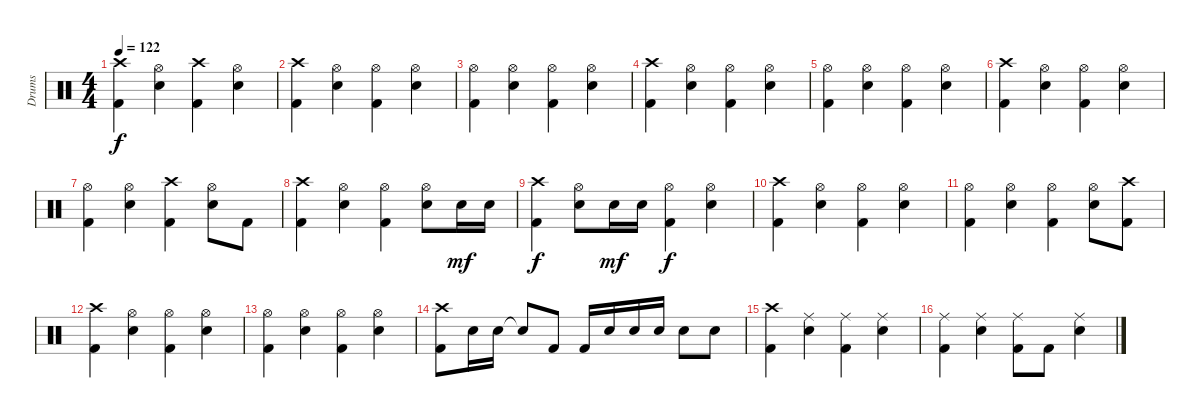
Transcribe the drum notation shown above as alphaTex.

\track ("Drums" "Drums") {instrument percussion}
\staff {score}
\articulation defaults
\ts (4 4)
\tempo 122
\clef neutral
\ks c
("Kick (hit) 2" "Crash high (hit)").4{dy f} ("Electric Snare (hit)" "Hi-Hat (open)").4 ("Kick (hit) 2" "Crash high (hit)").4 ("Electric Snare (hit)" "Hi-Hat (open)").4 |
("Crash high (hit)" "Kick (hit) 2").4 ("Electric Snare (hit)" "Hi-Hat (open)").4 ("Kick (hit) 2" "Hi-Hat (open)").4 ("Electric Snare (hit)" "Hi-Hat (open)").4 |
("Kick (hit) 2" "Hi-Hat (open)").4 ("Electric Snare (hit)" "Hi-Hat (open)").4 ("Kick (hit) 2" "Hi-Hat (open)").4 ("Electric Snare (hit)" "Hi-Hat (open)").4 |
("Crash high (hit)" "Kick (hit) 2").4 ("Electric Snare (hit)" "Hi-Hat (open)").4 ("Kick (hit) 2" "Hi-Hat (open)").4 ("Electric Snare (hit)" "Hi-Hat (open)").4 |
("Kick (hit) 2" "Hi-Hat (open)").4 ("Electric Snare (hit)" "Hi-Hat (open)").4 ("Kick (hit) 2" "Hi-Hat (open)").4 ("Electric Snare (hit)" "Hi-Hat (open)").4 |
("Kick (hit) 2" "Crash high (hit)").4 ("Electric Snare (hit)" "Hi-Hat (open)").4 ("Kick (hit) 2" "Hi-Hat (open)").4 ("Electric Snare (hit)" "Hi-Hat (open)").4 |
("Kick (hit) 2" "Hi-Hat (open)").4 ("Electric Snare (hit)" "Hi-Hat (open)").4 ("Kick (hit) 2" "Crash high (hit)").4 ("Electric Snare (hit)" "Hi-Hat (open)").8 "Kick (hit) 2".8 |
("Kick (hit) 2" "Crash high (hit)").4 ("Electric Snare (hit)" "Hi-Hat (open)").4 ("Kick (hit) 2" "Hi-Hat (open)").4 ("Electric Snare (hit)" "Hi-Hat (open)").8 "Electric Snare (hit)".16{dy mf} "Electric Snare (hit)".16 |
("Crash high (hit)" "Kick (hit) 2").4{dy f} ("Hi-Hat (open)" "Electric Snare (hit)").8 "Electric Snare (hit)".16{dy mf} "Electric Snare (hit)".16 ("Hi-Hat (open)" "Kick (hit) 2").4{dy f} ("Hi-Hat (open)" "Electric Snare (hit)").4 |
("Kick (hit) 2" "Crash high (hit)").4 ("Electric Snare (hit)" "Hi-Hat (open)").4 ("Kick (hit) 2" "Hi-Hat (open)").4 ("Electric Snare (hit)" "Hi-Hat (open)").4 |
("Kick (hit) 2" "Hi-Hat (open)").4 ("Electric Snare (hit)" "Hi-Hat (open)").4 ("Kick (hit) 2" "Hi-Hat (open)").4 ("Electric Snare (hit)" "Hi-Hat (open)").8 ("Crash high (hit)" "Kick (hit) 2").8 |
("Crash high (hit)" "Kick (hit) 2").4 ("Hi-Hat (open)" "Electric Snare (hit)").4 ("Kick (hit) 2" "Hi-Hat (open)").4 ("Electric Snare (hit)" "Hi-Hat (open)").4 |
("Kick (hit) 2" "Hi-Hat (open)").4 ("Electric Snare (hit)" "Hi-Hat (open)").4 ("Kick (hit) 2" "Hi-Hat (open)").4 ("Electric Snare (hit)" "Hi-Hat (open)").4 |
("Crash high (hit)" "Kick (hit) 2").8 "Electric Snare (hit)".16 "Electric Snare (hit)".16 "Snare (hit)"{t}.8 "Kick (hit) 2".8 "Kick (hit) 2".16 "Electric Snare (hit)".16 "Electric Snare (hit)".16 "Electric Snare (hit)".16 "Electric Snare (hit)".8 "Electric Snare (hit)".8 |
("Kick (hit) 2" "Crash high (hit)").4 ("Electric Snare (hit)" "Ride (middle)").4 ("Kick (hit) 2" "Ride (middle)").4 ("Electric Snare (hit)" "Ride (middle)").4 |
("Kick (hit) 2" "Ride (middle)").4 ("Electric Snare (hit)" "Ride (middle)").4 ("Kick (hit) 2" "Ride (middle)").8 "Kick (hit) 2".8 ("Electric Snare (hit)" "Ride (middle)").4
